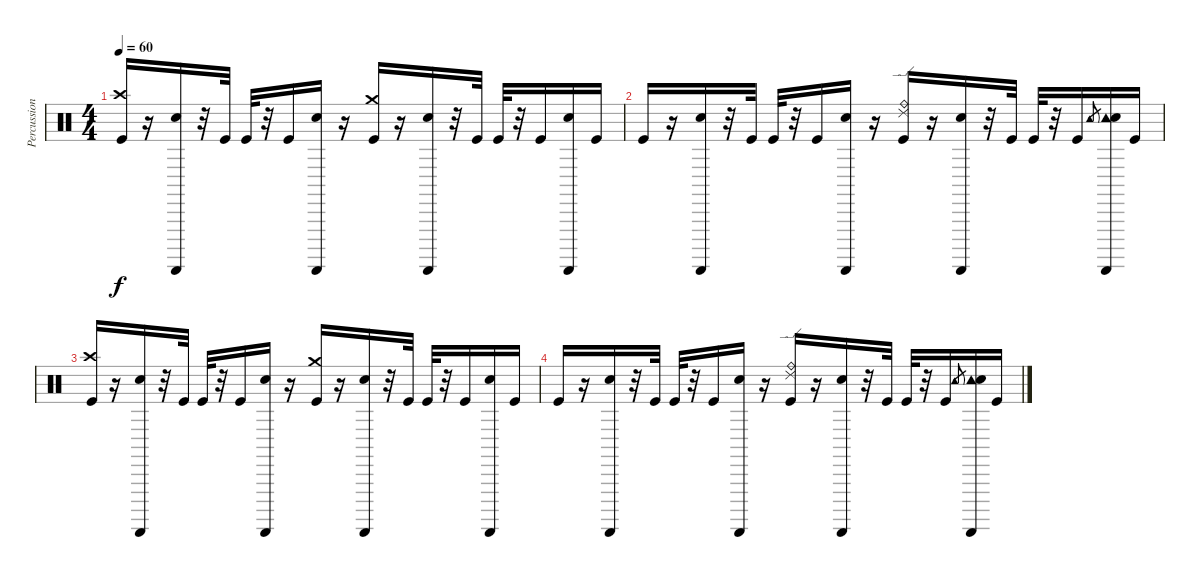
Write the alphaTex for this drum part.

\track ("Percussions" "Percussion") {instrument percussion}
\staff {score}
\articulation defaults
\ts (4 4)
\tempo 60
\clef neutral
\ks c
("Crash high (hit)" "Kick (hit)").16{dy f} r.16 ("Guiro (scrap-return)" "Electric Snare (hit)").16 r.32 "Kick (hit)".32 "Kick (hit)".32 r.32 "Kick (hit)".16 ("Guiro (scrap-return)" "Electric Snare (hit)").16 r.16 ("Crash medium (hit)" "Kick (hit)").16 r.16 ("Guiro (scrap-return)" "Electric Snare (hit)").16 r.32 "Kick (hit)".32 "Kick (hit)".32 r.32 "Kick (hit)".16 ("Guiro (scrap-return)" "Electric Snare (hit)").16 "Kick (hit)".16 |
"Kick (hit)".16 r.16 ("Guiro (scrap-return)" "Electric Snare (hit)").16 r.32 "Kick (hit)".32 "Kick (hit)".32 r.32 "Kick (hit)".16 ("Guiro (scrap-return)" "Electric Snare (hit)").16 r.16 ("Ride (bell)" "Ride (edge) 2" "Kick (hit)").16 r.16 ("Guiro (scrap-return)" "Electric Snare (hit)").16 r.32 "Kick (hit)".32 "Kick (hit)".32 r.32 "Kick (hit)".16 "Tambourine (hit)".8{gr} ("Tambourine (hit)" "Guiro (scrap-return)" "Electric Snare (hit)").16 "Kick (hit)".16 |
("Crash high (hit)" "Kick (hit)").16 r.16 ("Guiro (scrap-return)" "Electric Snare (hit)").16 r.32 "Kick (hit)".32 "Kick (hit)".32 r.32 "Kick (hit)".16 ("Guiro (scrap-return)" "Electric Snare (hit)").16 r.16 ("Crash medium (hit)" "Kick (hit)").16 r.16 ("Guiro (scrap-return)" "Electric Snare (hit)").16 r.32 "Kick (hit)".32 "Kick (hit)".32 r.32 "Kick (hit)".16 ("Guiro (scrap-return)" "Electric Snare (hit)").16 "Kick (hit)".16 |
"Kick (hit)".16 r.16 ("Guiro (scrap-return)" "Electric Snare (hit)").16 r.32 "Kick (hit)".32 "Kick (hit)".32 r.32 "Kick (hit)".16 ("Guiro (scrap-return)" "Electric Snare (hit)").16 r.16 ("Ride (bell)" "Ride (edge) 2" "Kick (hit)").16 r.16 ("Guiro (scrap-return)" "Electric Snare (hit)").16 r.32 "Kick (hit)".32 "Kick (hit)".32 r.32 "Kick (hit)".16 "Tambourine (hit)".8{gr} ("Tambourine (hit)" "Guiro (scrap-return)" "Electric Snare (hit)").16 "Kick (hit)".16
